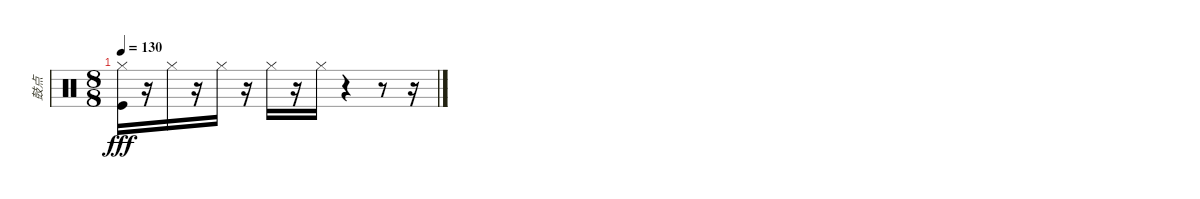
\track ("鼓点" "鼓点") {instrument percussion}
\staff {score}
\articulation defaults
\ts (8 8)
\tempo 130
\clef neutral
\ks c
("Hi-Hat (closed)" "Kick (hit)").16{dy fff} r.16 "Hi-Hat (closed)".16 r.16 "Hi-Hat (closed)".16 r.16 "Hi-Hat (closed)".16 r.16 "Hi-Hat (closed)".16 r.4 r.8 r.16
